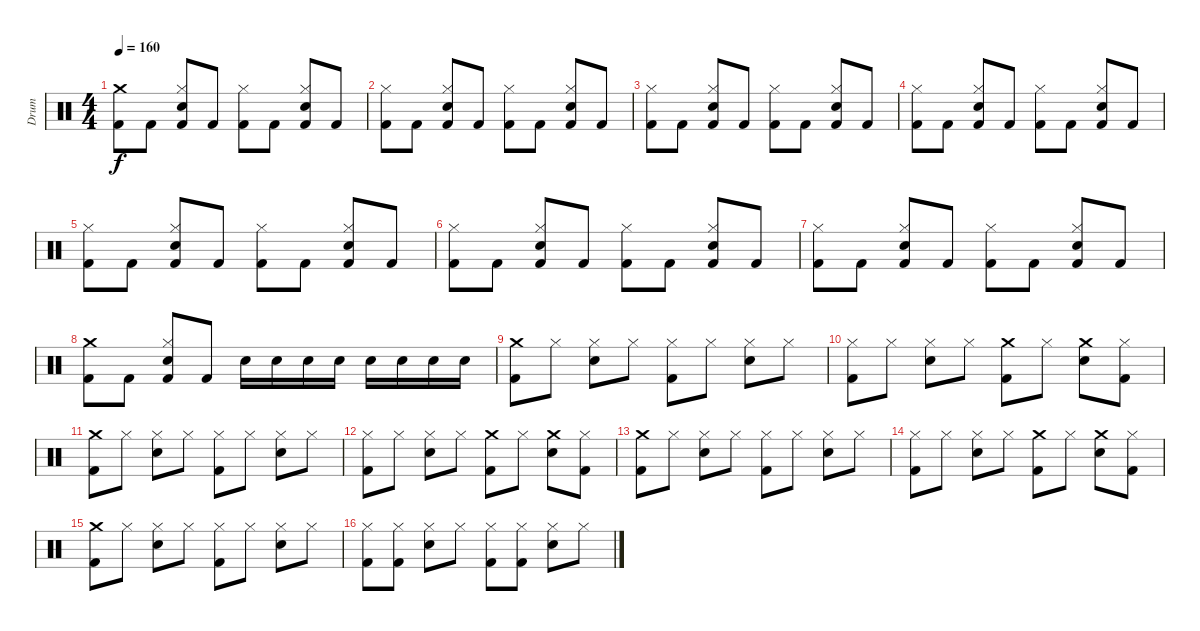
\track ("Drum" "Drum") {instrument percussion}
\staff {score}
\articulation defaults
\ts (4 4)
\tempo 160
\clef neutral
\ks c
("Crash medium (hit)" "Kick (hit) 2").8{dy f} "Kick (hit) 2".8 ("Hi-Hat (closed)" "Snare (hit) 2" "Kick (hit) 2").8 "Kick (hit) 2".8 ("Hi-Hat (closed)" "Kick (hit) 2").8 "Kick (hit) 2".8 ("Hi-Hat (closed)" "Snare (hit) 2" "Kick (hit) 2").8 "Kick (hit) 2".8 |
("Hi-Hat (closed)" "Kick (hit) 2").8 "Kick (hit) 2".8 ("Hi-Hat (closed)" "Snare (hit) 2" "Kick (hit) 2").8 "Kick (hit) 2".8 ("Hi-Hat (closed)" "Kick (hit) 2").8 "Kick (hit) 2".8 ("Hi-Hat (closed)" "Snare (hit) 2" "Kick (hit) 2").8 "Kick (hit) 2".8 |
("Hi-Hat (closed)" "Kick (hit) 2").8 "Kick (hit) 2".8 ("Hi-Hat (closed)" "Snare (hit) 2" "Kick (hit) 2").8 "Kick (hit) 2".8 ("Hi-Hat (closed)" "Kick (hit) 2").8 "Kick (hit) 2".8 ("Hi-Hat (closed)" "Snare (hit) 2" "Kick (hit) 2").8 "Kick (hit) 2".8 |
("Hi-Hat (closed)" "Kick (hit) 2").8 "Kick (hit) 2".8 ("Hi-Hat (closed)" "Snare (hit) 2" "Kick (hit) 2").8 "Kick (hit) 2".8 ("Hi-Hat (closed)" "Kick (hit) 2").8 "Kick (hit) 2".8 ("Hi-Hat (closed)" "Snare (hit) 2" "Kick (hit) 2").8 "Kick (hit) 2".8 |
("Hi-Hat (closed)" "Kick (hit) 2").8 "Kick (hit) 2".8 ("Hi-Hat (closed)" "Snare (hit) 2" "Kick (hit) 2").8 "Kick (hit) 2".8 ("Hi-Hat (closed)" "Kick (hit) 2").8 "Kick (hit) 2".8 ("Hi-Hat (closed)" "Snare (hit) 2" "Kick (hit) 2").8 "Kick (hit) 2".8 |
("Hi-Hat (closed)" "Kick (hit) 2").8 "Kick (hit) 2".8 ("Hi-Hat (closed)" "Snare (hit) 2" "Kick (hit) 2").8 "Kick (hit) 2".8 ("Hi-Hat (closed)" "Kick (hit) 2").8 "Kick (hit) 2".8 ("Hi-Hat (closed)" "Snare (hit) 2" "Kick (hit) 2").8 "Kick (hit) 2".8 |
("Hi-Hat (closed)" "Kick (hit) 2").8 "Kick (hit) 2".8 ("Hi-Hat (closed)" "Snare (hit) 2" "Kick (hit) 2").8 "Kick (hit) 2".8 ("Hi-Hat (closed)" "Kick (hit) 2").8 "Kick (hit) 2".8 ("Hi-Hat (closed)" "Snare (hit) 2" "Kick (hit) 2").8 "Kick (hit) 2".8 |
("Crash medium (hit)" "Kick (hit) 2").8 "Kick (hit) 2".8 ("Hi-Hat (closed)" "Snare (hit) 2" "Kick (hit) 2").8 "Kick (hit) 2".8 "Snare (hit) 2".16 "Snare (hit) 2".16 "Snare (hit) 2".16 "Snare (hit) 2".16 "Snare (hit) 2".16 "Snare (hit) 2".16 "Snare (hit) 2".16 "Snare (hit) 2".16 |
("Crash medium (hit)" "Kick (hit) 2").8 "Hi-Hat (closed)".8 ("Hi-Hat (closed)" "Snare (hit) 2").8 "Hi-Hat (closed)".8 ("Hi-Hat (closed)" "Kick (hit) 2").8 "Hi-Hat (closed)".8 ("Hi-Hat (closed)" "Snare (hit) 2").8 "Hi-Hat (closed)".8 |
("Hi-Hat (closed)" "Kick (hit) 2").8 "Hi-Hat (closed)".8 ("Hi-Hat (closed)" "Snare (hit) 2").8 "Hi-Hat (closed)".8 ("Crash medium (hit)" "Kick (hit) 2").8 "Hi-Hat (closed)".8 ("Crash medium (hit)" "Snare (hit) 2").8 ("Hi-Hat (closed)" "Kick (hit) 2").8 |
("Crash medium (hit)" "Kick (hit) 2").8 "Hi-Hat (closed)".8 ("Hi-Hat (closed)" "Snare (hit) 2").8 "Hi-Hat (closed)".8 ("Hi-Hat (closed)" "Kick (hit) 2").8 "Hi-Hat (closed)".8 ("Hi-Hat (closed)" "Snare (hit) 2").8 "Hi-Hat (closed)".8 |
("Hi-Hat (closed)" "Kick (hit) 2").8 "Hi-Hat (closed)".8 ("Hi-Hat (closed)" "Snare (hit) 2").8 "Hi-Hat (closed)".8 ("Crash medium (hit)" "Kick (hit) 2").8 "Hi-Hat (closed)".8 ("Crash medium (hit)" "Snare (hit) 2").8 ("Hi-Hat (closed)" "Kick (hit) 2").8 |
("Crash medium (hit)" "Kick (hit) 2").8 "Hi-Hat (closed)".8 ("Hi-Hat (closed)" "Snare (hit) 2").8 "Hi-Hat (closed)".8 ("Hi-Hat (closed)" "Kick (hit) 2").8 "Hi-Hat (closed)".8 ("Hi-Hat (closed)" "Snare (hit) 2").8 "Hi-Hat (closed)".8 |
("Hi-Hat (closed)" "Kick (hit) 2").8 "Hi-Hat (closed)".8 ("Hi-Hat (closed)" "Snare (hit) 2").8 "Hi-Hat (closed)".8 ("Crash medium (hit)" "Kick (hit) 2").8 "Hi-Hat (closed)".8 ("Crash medium (hit)" "Snare (hit) 2").8 ("Hi-Hat (closed)" "Kick (hit) 2").8 |
("Crash medium (hit)" "Kick (hit) 2").8 "Hi-Hat (closed)".8 ("Hi-Hat (closed)" "Snare (hit) 2").8 "Hi-Hat (closed)".8 ("Hi-Hat (closed)" "Kick (hit) 2").8 "Hi-Hat (closed)".8 ("Hi-Hat (closed)" "Snare (hit) 2").8 "Hi-Hat (closed)".8 |
("Hi-Hat (closed)" "Kick (hit) 2").8 ("Hi-Hat (closed)" "Kick (hit) 2").8 ("Hi-Hat (closed)" "Snare (hit) 2").8 "Hi-Hat (closed)".8 ("Hi-Hat (closed)" "Kick (hit) 2").8 ("Hi-Hat (closed)" "Kick (hit) 2").8 ("Hi-Hat (closed)" "Snare (hit) 2").8 "Hi-Hat (closed)".8
